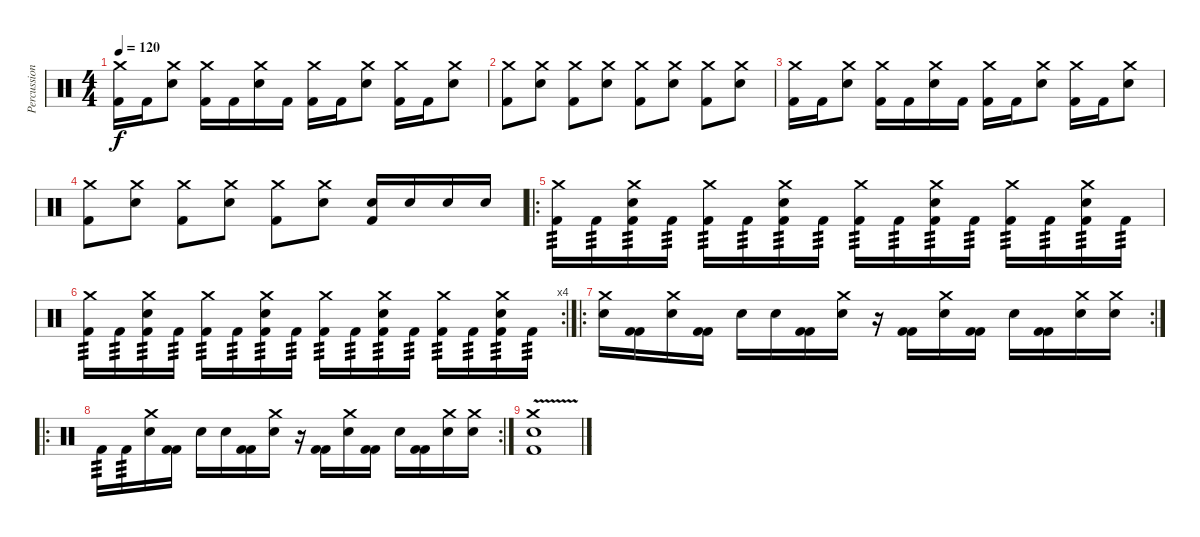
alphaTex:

\track ("Percussion" "Percussion") {instrument percussion}
\staff {score}
\articulation defaults
\ts (4 4)
\tempo 120
\clef neutral
\ks c
("Crash medium (hit)" "Kick (hit) 2").16{dy f} "Kick (hit) 2".16 ("Crash medium (hit)" "Electric Snare (hit)").8 ("Crash medium (hit)" "Kick (hit) 2").16 "Kick (hit) 2".16 ("Crash medium (hit)" "Electric Snare (hit)").16 "Kick (hit) 2".16 ("Crash medium (hit)" "Kick (hit) 2").16 "Kick (hit) 2".16 ("Crash medium (hit)" "Electric Snare (hit)").8 ("Crash medium (hit)" "Kick (hit) 2").16 "Kick (hit) 2".16 ("Crash medium (hit)" "Electric Snare (hit)").8 |
("Crash medium (hit)" "Kick (hit) 2").8 ("Crash medium (hit)" "Electric Snare (hit)").8 ("Crash medium (hit)" "Kick (hit) 2").8 ("Crash medium (hit)" "Electric Snare (hit)").8 ("Crash medium (hit)" "Kick (hit) 2").8 ("Crash medium (hit)" "Electric Snare (hit)").8 ("Crash medium (hit)" "Kick (hit) 2").8 ("Crash medium (hit)" "Electric Snare (hit)").8 |
("Crash medium (hit)" "Kick (hit) 2").16 "Kick (hit) 2".16 ("Crash medium (hit)" "Electric Snare (hit)").8 ("Crash medium (hit)" "Kick (hit) 2").16 "Kick (hit) 2".16 ("Crash medium (hit)" "Electric Snare (hit)").16 "Kick (hit) 2".16 ("Crash medium (hit)" "Kick (hit) 2").16 "Kick (hit) 2".16 ("Crash medium (hit)" "Electric Snare (hit)").8 ("Crash medium (hit)" "Kick (hit) 2").16 "Kick (hit) 2".16 ("Crash medium (hit)" "Electric Snare (hit)").8 |
("Crash medium (hit)" "Kick (hit) 2").8 ("Crash medium (hit)" "Electric Snare (hit)").8 ("Crash medium (hit)" "Kick (hit) 2").8 ("Crash medium (hit)" "Electric Snare (hit)").8 ("Crash medium (hit)" "Kick (hit) 2").8 ("Crash medium (hit)" "Electric Snare (hit)").8 ("Electric Snare (hit)" "Kick (hit) 2").16 "Electric Snare (hit)".16 "Electric Snare (hit)".16 "Electric Snare (hit)".16 |
\ro
("Crash medium (hit)" "Kick (hit) 2").16{tp 3} "Kick (hit) 2".16{tp 3} ("Crash medium (hit)" "Electric Snare (hit)" "Kick (hit) 2").16{tp 3} "Kick (hit) 2".16{tp 3} ("Crash medium (hit)" "Kick (hit) 2").16{tp 3} "Kick (hit) 2".16{tp 3} ("Crash medium (hit)" "Electric Snare (hit)" "Kick (hit) 2").16{tp 3} "Kick (hit) 2".16{tp 3} ("Crash medium (hit)" "Kick (hit) 2").16{tp 3} "Kick (hit) 2".16{tp 3} ("Crash medium (hit)" "Electric Snare (hit)" "Kick (hit) 2").16{tp 3} "Kick (hit) 2".16{tp 3} ("Crash medium (hit)" "Kick (hit) 2").16{tp 3} "Kick (hit) 2".16{tp 3} ("Crash medium (hit)" "Electric Snare (hit)" "Kick (hit) 2").16{tp 3} "Kick (hit) 2".16{tp 3} |
\rc 4
("Crash medium (hit)" "Kick (hit) 2").16{tp 3} "Kick (hit) 2".16{tp 3} ("Crash medium (hit)" "Electric Snare (hit)" "Kick (hit) 2").16{tp 3} "Kick (hit) 2".16{tp 3} ("Crash medium (hit)" "Kick (hit) 2").16{tp 3} "Kick (hit) 2".16{tp 3} ("Crash medium (hit)" "Electric Snare (hit)" "Kick (hit) 2").16{tp 3} "Kick (hit) 2".16{tp 3} ("Crash medium (hit)" "Kick (hit) 2").16{tp 3} "Kick (hit) 2".16{tp 3} ("Crash medium (hit)" "Electric Snare (hit)" "Kick (hit) 2").16{tp 3} "Kick (hit) 2".16{tp 3} ("Crash medium (hit)" "Kick (hit) 2").16{tp 3} "Kick (hit) 2".16{tp 3} ("Crash medium (hit)" "Electric Snare (hit)" "Kick (hit) 2").16{tp 3} "Kick (hit) 2".16{tp 3} |
\ro
\rc 2
("Crash medium (hit)" "Electric Snare (hit)").16 ("Kick (hit) 2" "Kick (hit) 2").16 ("Crash medium (hit)" "Electric Snare (hit)").16 ("Kick (hit) 2" "Kick (hit) 2").16 "Electric Snare (hit)".16 "Electric Snare (hit)".16 ("Kick (hit) 2" "Kick (hit) 2").16 ("Crash medium (hit)" "Electric Snare (hit)").16 r.16 ("Kick (hit) 2" "Kick (hit) 2").16 ("Crash medium (hit)" "Electric Snare (hit)").16 ("Kick (hit) 2" "Kick (hit) 2").16 "Electric Snare (hit)".16 ("Kick (hit) 2" "Kick (hit) 2").16 ("Crash medium (hit)" "Electric Snare (hit)").16 ("Crash medium (hit)" "Electric Snare (hit)").16 |
\ro
\rc 2 "Kick (hit) 2".16{tp 3} "Kick (hit) 2".16{tp 3}
("Crash medium (hit)" "Electric Snare (hit)").16 ("Kick (hit) 2" "Kick (hit) 2").16 "Electric Snare (hit)".16 "Electric Snare (hit)".16 ("Kick (hit) 2" "Kick (hit) 2").16 ("Crash medium (hit)" "Electric Snare (hit)").16 r.16 ("Kick (hit) 2" "Kick (hit) 2").16 ("Crash medium (hit)" "Electric Snare (hit)").16 ("Kick (hit) 2" "Kick (hit) 2").16 "Electric Snare (hit)".16 ("Kick (hit) 2" "Kick (hit) 2").16 ("Crash medium (hit)" "Electric Snare (hit)").16 ("Crash medium (hit)" "Electric Snare (hit)").16 |
("Crash medium (hit)"{v} "Kick (hit) 2"{v} "Electric Snare (hit)"{v}).1
